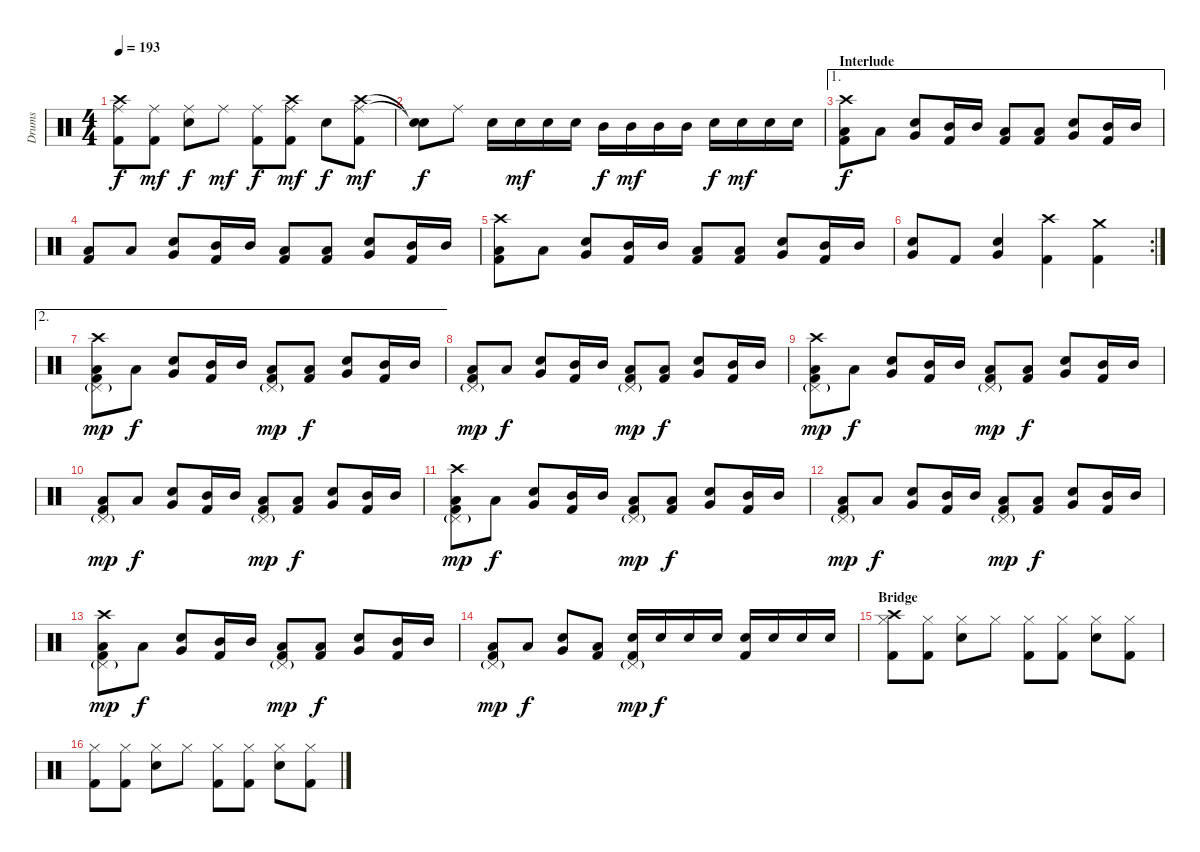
\track ("Drums" "Drums") {instrument percussion}
\staff {score}
\articulation defaults
\ts (4 4)
\tempo 193
\clef neutral
\ks c
("Crash high (hit)" "Ride (middle)" "Kick (hit) 2").8{dy f} ("Ride (middle)" "Kick (hit) 2").8{dy mf} ("Ride (middle)" "Electric Snare (hit)").8{dy f} "Ride (middle)".8{dy mf} ("Ride (middle)" "Kick (hit) 2").8{dy f} ("Crash high (hit)" "Ride (middle)" "Kick (hit) 2").8{dy mf} "Electric Snare (hit)".8{dy f} ("Crash high (hit)" "Ride (middle)" "Kick (hit) 2").8{dy mf} |
("Snare (hit)"{t} "Snare (hit)"{t}).8{dy f} "Ride (middle)".8 "Electric Snare (hit)".16 "Electric Snare (hit)".16{dy mf} "Electric Snare (hit)".16 "Electric Snare (hit)".16 "Mid Tom (hit)".16{dy f} "Mid Tom (hit)".16{dy mf} "Mid Tom (hit)".16 "Mid Tom (hit)".16 "Electric Snare (hit)".16{dy f} "Electric Snare (hit)".16{dy mf} "Electric Snare (hit)".16 "Electric Snare (hit)".16 |
\ae 1
\section ("" "Interlude")
("Crash high (hit)" "Low Tom (hit)" "Kick (hit) 2").8{dy f} "Low Tom (hit)".8 ("Very Low Tom (hit)" "Electric Snare (hit)").8 ("Mid Tom (hit)" "Kick (hit) 2").16 "Mid Tom (hit)".16 ("Low Tom (hit)" "Kick (hit) 2").8 ("Low Tom (hit)" "Kick (hit) 2").8 ("Very Low Tom (hit)" "Electric Snare (hit)").8 ("Mid Tom (hit)" "Kick (hit) 2").16 "Mid Tom (hit)".16 |
("Low Tom (hit)" "Kick (hit) 2").8 "Low Tom (hit)".8 ("Very Low Tom (hit)" "Electric Snare (hit)").8 ("Mid Tom (hit)" "Kick (hit) 2").16 "Mid Tom (hit)".16 ("Low Tom (hit)" "Kick (hit) 2").8 ("Low Tom (hit)" "Kick (hit) 2").8 ("Very Low Tom (hit)" "Electric Snare (hit)").8 ("Mid Tom (hit)" "Kick (hit) 2").16 "Mid Tom (hit)".16 |
("Crash high (hit)" "Low Tom (hit)" "Kick (hit) 2").8 "Low Tom (hit)".8 ("Very Low Tom (hit)" "Electric Snare (hit)").8 ("Mid Tom (hit)" "Kick (hit) 2").16 "Mid Tom (hit)".16 ("Low Tom (hit)" "Kick (hit) 2").8 ("Low Tom (hit)" "Kick (hit) 2").8 ("Very Low Tom (hit)" "Electric Snare (hit)").8 ("Mid Tom (hit)" "Kick (hit) 2").16 "Mid Tom (hit)".16 |
\rc 2
("Very Low Tom (hit)" "Electric Snare (hit)").8 "Kick (hit) 2".8 ("Very Low Tom (hit)" "Electric Snare (hit)").4 ("Crash high (hit)" "Kick (hit) 2").4 ("Crash medium (hit)" "Kick (hit) 2").4 |
\ae 2
("Pedal Hi-Hat (hit)"{g} "Crash high (hit)" "Low Tom (hit)" "Kick (hit) 2").8{dy mp} "Low Tom (hit)".8{dy f} ("Very Low Tom (hit)" "Electric Snare (hit)").8 ("Mid Tom (hit)" "Kick (hit) 2").16 "Mid Tom (hit)".16 ("Pedal Hi-Hat (hit)"{g} "Low Tom (hit)" "Kick (hit) 2").8{dy mp} ("Low Tom (hit)" "Kick (hit) 2").8{dy f} ("Very Low Tom (hit)" "Electric Snare (hit)").8 ("Mid Tom (hit)" "Kick (hit) 2").16 "Mid Tom (hit)".16 |
("Pedal Hi-Hat (hit)"{g} "Low Tom (hit)" "Kick (hit) 2").8{dy mp} "Low Tom (hit)".8{dy f} ("Very Low Tom (hit)" "Electric Snare (hit)").8 ("Mid Tom (hit)" "Kick (hit) 2").16 "Mid Tom (hit)".16 ("Pedal Hi-Hat (hit)"{g} "Low Tom (hit)" "Kick (hit) 2").8{dy mp} ("Low Tom (hit)" "Kick (hit) 2").8{dy f} ("Very Low Tom (hit)" "Electric Snare (hit)").8 ("Mid Tom (hit)" "Kick (hit) 2").16 "Mid Tom (hit)".16 |
("Pedal Hi-Hat (hit)"{g} "Crash high (hit)" "Low Tom (hit)" "Kick (hit) 2").8{dy mp} "Low Tom (hit)".8{dy f} ("Very Low Tom (hit)" "Electric Snare (hit)").8 ("Mid Tom (hit)" "Kick (hit) 2").16 "Mid Tom (hit)".16 ("Pedal Hi-Hat (hit)"{g} "Low Tom (hit)" "Kick (hit) 2").8{dy mp} ("Low Tom (hit)" "Kick (hit) 2").8{dy f} ("Very Low Tom (hit)" "Electric Snare (hit)").8 ("Mid Tom (hit)" "Kick (hit) 2").16 "Mid Tom (hit)".16 |
("Pedal Hi-Hat (hit)"{g} "Low Tom (hit)" "Kick (hit) 2").8{dy mp} "Low Tom (hit)".8{dy f} ("Very Low Tom (hit)" "Electric Snare (hit)").8 ("Mid Tom (hit)" "Kick (hit) 2").16 "Mid Tom (hit)".16 ("Pedal Hi-Hat (hit)"{g} "Low Tom (hit)" "Kick (hit) 2").8{dy mp} ("Low Tom (hit)" "Kick (hit) 2").8{dy f} ("Very Low Tom (hit)" "Electric Snare (hit)").8 ("Mid Tom (hit)" "Kick (hit) 2").16 "Mid Tom (hit)".16 |
("Pedal Hi-Hat (hit)"{g} "Crash high (hit)" "Low Tom (hit)" "Kick (hit) 2").8{dy mp} "Low Tom (hit)".8{dy f} ("Very Low Tom (hit)" "Electric Snare (hit)").8 ("Mid Tom (hit)" "Kick (hit) 2").16 "Mid Tom (hit)".16 ("Pedal Hi-Hat (hit)"{g} "Low Tom (hit)" "Kick (hit) 2").8{dy mp} ("Low Tom (hit)" "Kick (hit) 2").8{dy f} ("Very Low Tom (hit)" "Electric Snare (hit)").8 ("Mid Tom (hit)" "Kick (hit) 2").16 "Mid Tom (hit)".16 |
("Pedal Hi-Hat (hit)"{g} "Low Tom (hit)" "Kick (hit) 2").8{dy mp} "Low Tom (hit)".8{dy f} ("Very Low Tom (hit)" "Electric Snare (hit)").8 ("Mid Tom (hit)" "Kick (hit) 2").16 "Mid Tom (hit)".16 ("Pedal Hi-Hat (hit)"{g} "Low Tom (hit)" "Kick (hit) 2").8{dy mp} ("Low Tom (hit)" "Kick (hit) 2").8{dy f} ("Very Low Tom (hit)" "Electric Snare (hit)").8 ("Mid Tom (hit)" "Kick (hit) 2").16 "Mid Tom (hit)".16 |
("Pedal Hi-Hat (hit)"{g} "Crash high (hit)" "Low Tom (hit)" "Kick (hit) 2").8{dy mp} "Low Tom (hit)".8{dy f} ("Very Low Tom (hit)" "Electric Snare (hit)").8 ("Mid Tom (hit)" "Kick (hit) 2").16 "Mid Tom (hit)".16 ("Pedal Hi-Hat (hit)"{g} "Low Tom (hit)" "Kick (hit) 2").8{dy mp} ("Low Tom (hit)" "Kick (hit) 2").8{dy f} ("Very Low Tom (hit)" "Electric Snare (hit)").8 ("Mid Tom (hit)" "Kick (hit) 2").16 "Mid Tom (hit)".16 |
("Pedal Hi-Hat (hit)"{g} "Low Tom (hit)" "Kick (hit) 2").8{dy mp} "Low Tom (hit)".8{dy f} ("Very Low Tom (hit)" "Electric Snare (hit)").8 ("Low Tom (hit)" "Kick (hit) 2").8 ("Pedal Hi-Hat (hit)"{g} "Electric Snare (hit)" "Kick (hit) 2").16{dy mp} "Electric Snare (hit)".16{dy f} "Electric Snare (hit)".16 "Electric Snare (hit)".16 ("Electric Snare (hit)" "Kick (hit) 2").16 "Electric Snare (hit)".16 "Electric Snare (hit)".16 "Electric Snare (hit)".16 |
\section ("" "Bridge")
("Crash high (hit)" "Hi-Hat (closed)" "Kick (hit) 2").8 ("Hi-Hat (closed)" "Kick (hit) 2").8 ("Hi-Hat (closed)" "Electric Snare (hit)").8 "Hi-Hat (closed)".8 ("Hi-Hat (closed)" "Kick (hit) 2").8 ("Hi-Hat (closed)" "Kick (hit) 2").8 ("Hi-Hat (closed)" "Electric Snare (hit)").8 ("Hi-Hat (closed)" "Kick (hit) 2").8 |
("Hi-Hat (closed)" "Kick (hit) 2").8 ("Hi-Hat (closed)" "Kick (hit) 2").8 ("Hi-Hat (closed)" "Electric Snare (hit)").8 "Hi-Hat (closed)".8 ("Hi-Hat (closed)" "Kick (hit) 2").8 ("Hi-Hat (closed)" "Kick (hit) 2").8 ("Hi-Hat (closed)" "Electric Snare (hit)").8 ("Hi-Hat (closed)" "Kick (hit) 2").8
